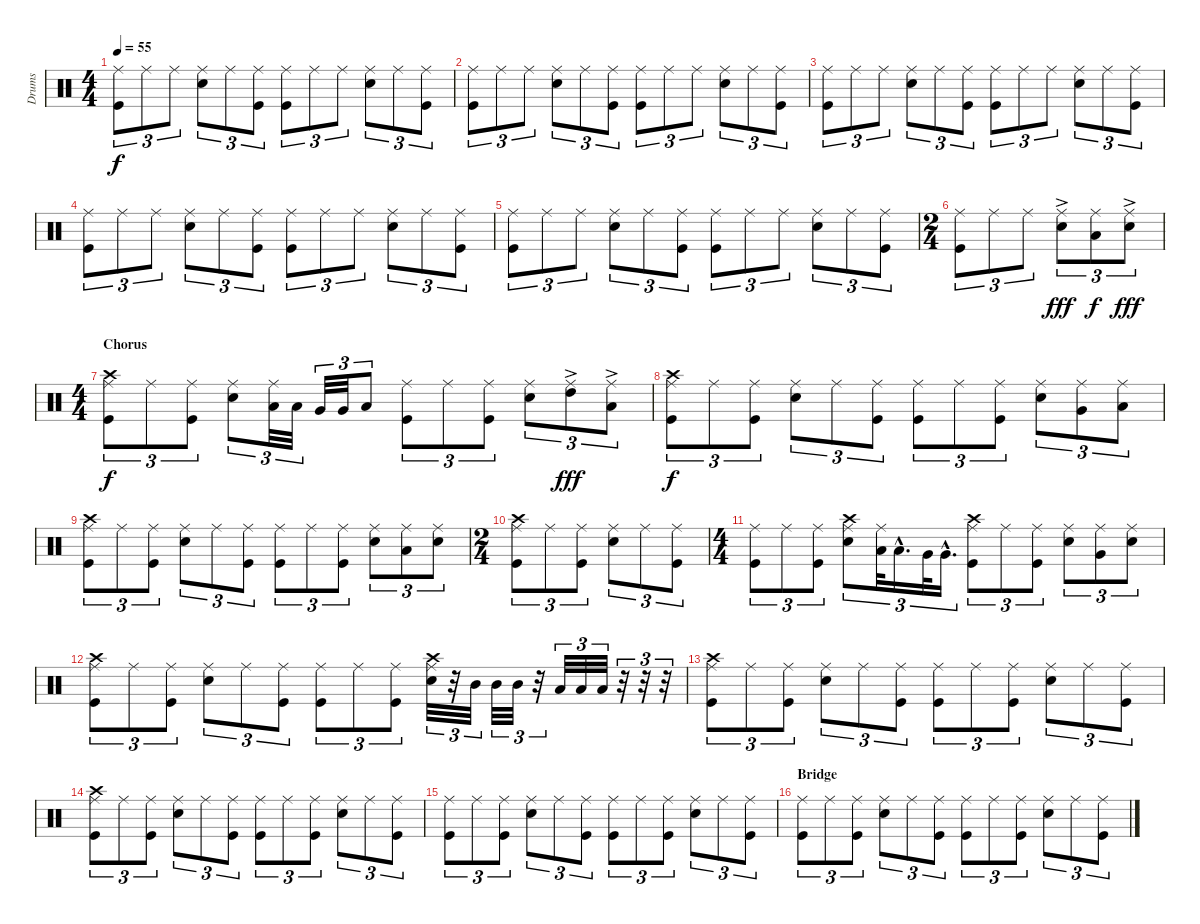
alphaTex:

\track ("Drums" "Drums") {instrument percussion}
\staff {score}
\articulation defaults
\ts (4 4)
\tempo 55
\clef neutral
\ks c
("Ride (middle)" "Kick (hit)").8{tu (3 2) dy f} "Ride (middle)".8{tu (3 2)} "Ride (middle)".8{tu (3 2)} ("Ride (middle)" "Snare (hit) 2").8{tu (3 2)} "Ride (middle)".8{tu (3 2)} ("Ride (middle)" "Kick (hit)").8{tu (3 2)} ("Ride (middle)" "Kick (hit)").8{tu (3 2)} "Ride (middle)".8{tu (3 2)} "Ride (middle)".8{tu (3 2)} ("Ride (middle)" "Snare (hit) 2").8{tu (3 2)} "Ride (middle)".8{tu (3 2)} ("Ride (middle)" "Kick (hit)").8{tu (3 2)} |
("Ride (middle)" "Kick (hit)").8{tu (3 2)} "Ride (middle)".8{tu (3 2)} "Ride (middle)".8{tu (3 2)} ("Ride (middle)" "Snare (hit) 2").8{tu (3 2)} "Ride (middle)".8{tu (3 2)} ("Ride (middle)" "Kick (hit)").8{tu (3 2)} ("Ride (middle)" "Kick (hit)").8{tu (3 2)} "Ride (middle)".8{tu (3 2)} "Ride (middle)".8{tu (3 2)} ("Ride (middle)" "Snare (hit) 2").8{tu (3 2)} "Ride (middle)".8{tu (3 2)} ("Ride (middle)" "Kick (hit)").8{tu (3 2)} |
("Ride (middle)" "Kick (hit)").8{tu (3 2)} "Ride (middle)".8{tu (3 2)} "Ride (middle)".8{tu (3 2)} ("Ride (middle)" "Snare (hit) 2").8{tu (3 2)} "Ride (middle)".8{tu (3 2)} ("Ride (middle)" "Kick (hit)").8{tu (3 2)} ("Ride (middle)" "Kick (hit)").8{tu (3 2)} "Ride (middle)".8{tu (3 2)} "Ride (middle)".8{tu (3 2)} ("Ride (middle)" "Snare (hit) 2").8{tu (3 2)} "Ride (middle)".8{tu (3 2)} ("Ride (middle)" "Kick (hit)").8{tu (3 2)} |
("Ride (middle)" "Kick (hit)").8{tu (3 2)} "Ride (middle)".8{tu (3 2)} "Ride (middle)".8{tu (3 2)} ("Ride (middle)" "Snare (hit) 2").8{tu (3 2)} "Ride (middle)".8{tu (3 2)} ("Ride (middle)" "Kick (hit)").8{tu (3 2)} ("Ride (middle)" "Kick (hit)").8{tu (3 2)} "Ride (middle)".8{tu (3 2)} "Ride (middle)".8{tu (3 2)} ("Ride (middle)" "Snare (hit) 2").8{tu (3 2)} "Ride (middle)".8{tu (3 2)} ("Ride (middle)" "Kick (hit)").8{tu (3 2)} |
("Ride (middle)" "Kick (hit)").8{tu (3 2)} "Ride (middle)".8{tu (3 2)} "Ride (middle)".8{tu (3 2)} ("Ride (middle)" "Snare (hit) 2").8{tu (3 2)} "Ride (middle)".8{tu (3 2)} ("Ride (middle)" "Kick (hit)").8{tu (3 2)} ("Ride (middle)" "Kick (hit)").8{tu (3 2)} "Ride (middle)".8{tu (3 2)} "Ride (middle)".8{tu (3 2)} ("Ride (middle)" "Snare (hit) 2").8{tu (3 2)} "Ride (middle)".8{tu (3 2)} ("Ride (middle)" "Kick (hit)").8{tu (3 2)} |
\ts (2 4)
("Ride (middle)" "Kick (hit)").8{tu (3 2)} "Ride (middle)".8{tu (3 2)} "Ride (middle)".8{tu (3 2)} ("Ride (middle)" "Snare (hit) 2"{ac}).8{tu (3 2) dy fff} ("Ride (middle)" "Low Tom (hit)").8{tu (3 2) dy f} ("Ride (middle)" "Snare (hit) 2"{ac}).8{tu (3 2) dy fff} |
\ts (4 4)
\section ("" "Chorus")
("Ride (middle)" "Crash high (hit)" "Kick (hit)").8{tu (3 2) dy f} "Ride (middle)".8{tu (3 2)} ("Ride (middle)" "Kick (hit)").8{tu (3 2)} ("Ride (middle)" "Snare (hit) 2").8{tu (3 2)} ("Ride (middle)" "Low Tom (hit)").32{tu (3 2)} "Low Tom (hit)".32{tu (3 2)} "Very Low Tom (hit)".32{tu (3 2)} "Very Low Tom (hit)".32{tu (3 2)} "Low Floor Tom (hit)".8{tu (3 2)} ("Ride (middle)" "Kick (hit)").8{tu (3 2)} "Ride (middle)".8{tu (3 2)} ("Ride (middle)" "Kick (hit)").8{tu (3 2)} ("Ride (middle)" "Snare (hit) 2").8{tu (3 2)} ("Ride (middle)" "High Tom (hit)"{ac}).8{tu (3 2) dy fff} ("Ride (middle)" "Low Tom (hit)"{ac}).8{tu (3 2)} |
("Ride (middle)" "Crash high (hit)" "Kick (hit)").8{tu (3 2) dy f} "Ride (middle)".8{tu (3 2)} ("Ride (middle)" "Kick (hit)").8{tu (3 2)} ("Ride (middle)" "Snare (hit) 2").8{tu (3 2)} "Ride (middle)".8{tu (3 2)} ("Ride (middle)" "Kick (hit)").8{tu (3 2)} ("Ride (middle)" "Kick (hit)").8{tu (3 2)} "Ride (middle)".8{tu (3 2)} ("Ride (middle)" "Kick (hit)").8{tu (3 2)} ("Ride (middle)" "Snare (hit) 2").8{tu (3 2)} ("Ride (middle)" "Very Low Tom (hit)").8{tu (3 2)} ("Ride (middle)" "Low Tom (hit)").8{tu (3 2)} |
("Ride (middle)" "Crash high (hit)" "Kick (hit)").8{tu (3 2)} "Ride (middle)".8{tu (3 2)} ("Ride (middle)" "Kick (hit)").8{tu (3 2)} ("Ride (middle)" "Snare (hit) 2").8{tu (3 2)} "Ride (middle)".8{tu (3 2)} ("Ride (middle)" "Kick (hit)").8{tu (3 2)} ("Ride (middle)" "Kick (hit)").8{tu (3 2)} "Ride (middle)".8{tu (3 2)} ("Ride (middle)" "Kick (hit)").8{tu (3 2)} ("Ride (middle)" "Snare (hit) 2").8{tu (3 2)} ("Ride (middle)" "Low Tom (hit)").8{tu (3 2)} ("Ride (middle)" "Snare (hit) 2").8{tu (3 2)} |
\ts (2 4)
("Ride (middle)" "Crash high (hit)" "Kick (hit)").8{tu (3 2)} "Ride (middle)".8{tu (3 2)} ("Ride (middle)" "Kick (hit)").8{tu (3 2)} ("Ride (middle)" "Snare (hit) 2").8{tu (3 2)} "Ride (middle)".8{tu (3 2)} ("Ride (middle)" "Kick (hit)").8{tu (3 2)} |
\ts (4 4)
("Ride (middle)" "Kick (hit)").8{tu (3 2)} "Ride (middle)".8{tu (3 2)} ("Ride (middle)" "Kick (hit)").8{tu (3 2)} ("Ride (middle)" "Crash high (hit)" "Snare (hit) 2").8{tu (3 2)} ("Ride (middle)" "Low Tom (hit)").32{tu (3 2)} "Low Tom (hit)"{hac}.16{d tu (3 2)} "Very Low Tom (hit)".32{tu (3 2)} "Very Low Tom (hit)"{hac}.16{d tu (3 2)} ("Ride (middle)" "Crash high (hit)" "Kick (hit)").8{tu (3 2)} "Ride (middle)".8{tu (3 2)} ("Ride (middle)" "Kick (hit)").8{tu (3 2)} ("Ride (middle)" "Snare (hit) 2").8{tu (3 2)} ("Ride (middle)" "Very Low Tom (hit)").8{tu (3 2)} ("Ride (middle)" "Snare (hit) 2").8{tu (3 2)} |
("Ride (middle)" "Crash high (hit)" "Kick (hit)").8{tu (3 2)} "Ride (middle)".8{tu (3 2)} ("Ride (middle)" "Kick (hit)").8{tu (3 2)} ("Ride (middle)" "Snare (hit) 2").8{tu (3 2)} "Ride (middle)".8{tu (3 2)} ("Ride (middle)" "Kick (hit)").8{tu (3 2)} ("Ride (middle)" "Kick (hit)").8{tu (3 2)} "Ride (middle)".8{tu (3 2)} ("Ride (middle)" "Kick (hit)").8{tu (3 2)} ("Ride (middle)" "Crash high (hit)" "Snare (hit) 2").32{tu (3 2)} r.32{tu (3 2)} "Mid Tom (hit)".32{tu (3 2)} "Mid Tom (hit)".32{tu (3 2)} "Mid Tom (hit)".32{tu (3 2)} r.32{tu (3 2)} "Low Tom (hit)".32{tu (3 2)} "Low Tom (hit)".32{tu (3 2)} "Low Tom (hit)".32{tu (3 2)} r.32{tu (3 2)} r.32{tu (3 2)} r.32{tu (3 2)} |
("Ride (middle)" "Crash high (hit)" "Kick (hit)").8{tu (3 2)} "Ride (middle)".8{tu (3 2)} ("Ride (middle)" "Kick (hit)").8{tu (3 2)} ("Ride (middle)" "Snare (hit) 2").8{tu (3 2)} "Ride (middle)".8{tu (3 2)} ("Ride (middle)" "Kick (hit)").8{tu (3 2)} ("Ride (middle)" "Kick (hit)").8{tu (3 2)} "Ride (middle)".8{tu (3 2)} ("Ride (middle)" "Kick (hit)").8{tu (3 2)} ("Ride (middle)" "Snare (hit) 2").8{tu (3 2)} "Ride (middle)".8{tu (3 2)} ("Ride (middle)" "Kick (hit)").8{tu (3 2)} |
("Ride (middle)" "Crash high (hit)" "Kick (hit)").8{tu (3 2)} "Ride (middle)".8{tu (3 2)} ("Ride (middle)" "Kick (hit)").8{tu (3 2)} ("Ride (middle)" "Snare (hit) 2").8{tu (3 2)} "Ride (middle)".8{tu (3 2)} ("Ride (middle)" "Kick (hit)").8{tu (3 2)} ("Ride (middle)" "Kick (hit)").8{tu (3 2)} "Ride (middle)".8{tu (3 2)} ("Ride (middle)" "Kick (hit)").8{tu (3 2)} ("Ride (middle)" "Snare (hit) 2").8{tu (3 2)} "Ride (middle)".8{tu (3 2)} ("Ride (middle)" "Kick (hit)").8{tu (3 2)} |
("Ride (middle)" "Kick (hit)").8{tu (3 2)} "Ride (middle)".8{tu (3 2)} ("Ride (middle)" "Kick (hit)").8{tu (3 2)} ("Ride (middle)" "Snare (hit) 2").8{tu (3 2)} "Ride (middle)".8{tu (3 2)} ("Ride (middle)" "Kick (hit)").8{tu (3 2)} ("Ride (middle)" "Kick (hit)").8{tu (3 2)} "Ride (middle)".8{tu (3 2)} ("Ride (middle)" "Kick (hit)").8{tu (3 2)} ("Ride (middle)" "Snare (hit) 2").8{tu (3 2)} "Ride (middle)".8{tu (3 2)} ("Ride (middle)" "Kick (hit)").8{tu (3 2)} |
\section ("" "Bridge")
("Ride (middle)" "Kick (hit)").8{tu (3 2)} "Ride (middle)".8{tu (3 2)} ("Ride (middle)" "Kick (hit)").8{tu (3 2)} ("Ride (middle)" "Snare (hit) 2").8{tu (3 2)} "Ride (middle)".8{tu (3 2)} ("Ride (middle)" "Kick (hit)").8{tu (3 2)} ("Ride (middle)" "Kick (hit)").8{tu (3 2)} "Ride (middle)".8{tu (3 2)} ("Ride (middle)" "Kick (hit)").8{tu (3 2)} ("Ride (middle)" "Snare (hit) 2").8{tu (3 2)} "Ride (middle)".8{tu (3 2)} ("Ride (middle)" "Kick (hit)").8{tu (3 2)}
